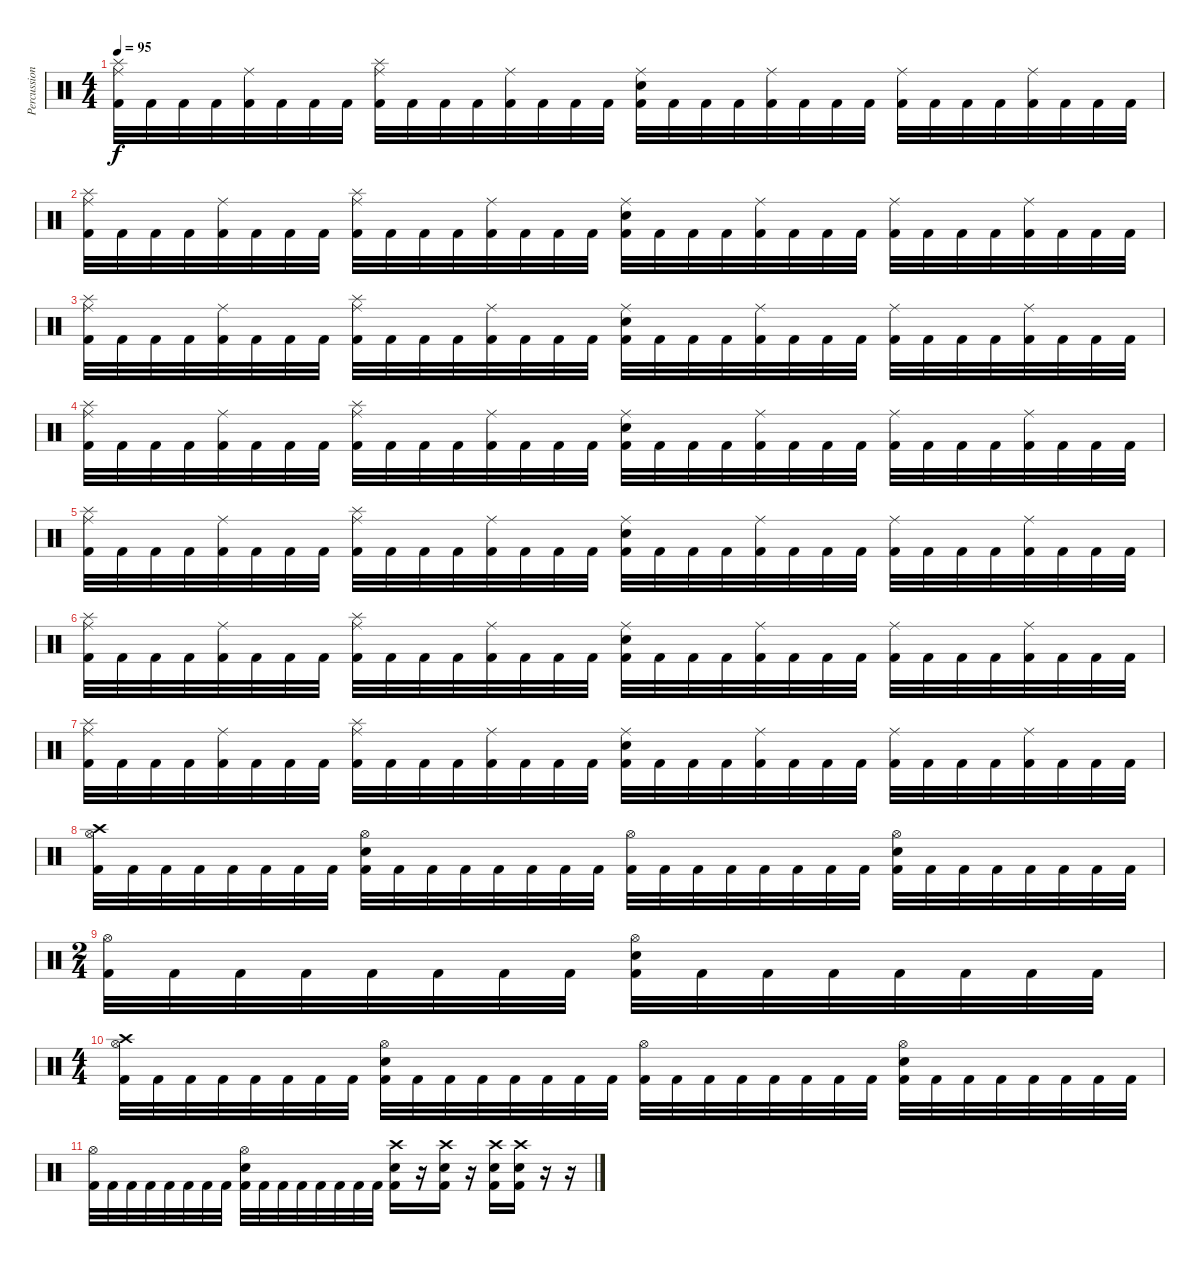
\track ("Percussions" "Percussion") {instrument percussion}
\staff {score}
\articulation defaults
\ts (4 4)
\tempo 95
\clef neutral
\ks c
("Ride (middle)" "Splash (hit)" "Kick (hit) 2").32{dy f} "Kick (hit) 2".32 "Kick (hit) 2".32 "Kick (hit) 2".32 ("Ride (middle)" "Kick (hit) 2").32 "Kick (hit) 2".32 "Kick (hit) 2".32 "Kick (hit) 2".32 ("Ride (middle)" "Splash (hit)" "Kick (hit) 2").32 "Kick (hit) 2".32 "Kick (hit) 2".32 "Kick (hit) 2".32 ("Ride (middle)" "Kick (hit) 2").32 "Kick (hit) 2".32 "Kick (hit) 2".32 "Kick (hit) 2".32 ("Ride (middle)" "Electric Snare (hit)" "Kick (hit) 2").32 "Kick (hit) 2".32 "Kick (hit) 2".32 "Kick (hit) 2".32 ("Ride (middle)" "Kick (hit) 2").32 "Kick (hit) 2".32 "Kick (hit) 2".32 "Kick (hit) 2".32 ("Ride (middle)" "Kick (hit) 2").32 "Kick (hit) 2".32 "Kick (hit) 2".32 "Kick (hit) 2".32 ("Ride (middle)" "Kick (hit) 2").32 "Kick (hit) 2".32 "Kick (hit) 2".32 "Kick (hit) 2".32 |
("Ride (middle)" "Splash (hit)" "Kick (hit) 2").32 "Kick (hit) 2".32 "Kick (hit) 2".32 "Kick (hit) 2".32 ("Ride (middle)" "Kick (hit) 2").32 "Kick (hit) 2".32 "Kick (hit) 2".32 "Kick (hit) 2".32 ("Ride (middle)" "Splash (hit)" "Kick (hit) 2").32 "Kick (hit) 2".32 "Kick (hit) 2".32 "Kick (hit) 2".32 ("Ride (middle)" "Kick (hit) 2").32 "Kick (hit) 2".32 "Kick (hit) 2".32 "Kick (hit) 2".32 ("Ride (middle)" "Electric Snare (hit)" "Kick (hit) 2").32 "Kick (hit) 2".32 "Kick (hit) 2".32 "Kick (hit) 2".32 ("Ride (middle)" "Kick (hit) 2").32 "Kick (hit) 2".32 "Kick (hit) 2".32 "Kick (hit) 2".32 ("Ride (middle)" "Kick (hit) 2").32 "Kick (hit) 2".32 "Kick (hit) 2".32 "Kick (hit) 2".32 ("Ride (middle)" "Kick (hit) 2").32 "Kick (hit) 2".32 "Kick (hit) 2".32 "Kick (hit) 2".32 |
("Ride (middle)" "Splash (hit)" "Kick (hit) 2").32 "Kick (hit) 2".32 "Kick (hit) 2".32 "Kick (hit) 2".32 ("Ride (middle)" "Kick (hit) 2").32 "Kick (hit) 2".32 "Kick (hit) 2".32 "Kick (hit) 2".32 ("Ride (middle)" "Splash (hit)" "Kick (hit) 2").32 "Kick (hit) 2".32 "Kick (hit) 2".32 "Kick (hit) 2".32 ("Ride (middle)" "Kick (hit) 2").32 "Kick (hit) 2".32 "Kick (hit) 2".32 "Kick (hit) 2".32 ("Ride (middle)" "Electric Snare (hit)" "Kick (hit) 2").32 "Kick (hit) 2".32 "Kick (hit) 2".32 "Kick (hit) 2".32 ("Ride (middle)" "Kick (hit) 2").32 "Kick (hit) 2".32 "Kick (hit) 2".32 "Kick (hit) 2".32 ("Ride (middle)" "Kick (hit) 2").32 "Kick (hit) 2".32 "Kick (hit) 2".32 "Kick (hit) 2".32 ("Ride (middle)" "Kick (hit) 2").32 "Kick (hit) 2".32 "Kick (hit) 2".32 "Kick (hit) 2".32 |
("Ride (middle)" "Splash (hit)" "Kick (hit) 2").32 "Kick (hit) 2".32 "Kick (hit) 2".32 "Kick (hit) 2".32 ("Ride (middle)" "Kick (hit) 2").32 "Kick (hit) 2".32 "Kick (hit) 2".32 "Kick (hit) 2".32 ("Ride (middle)" "Splash (hit)" "Kick (hit) 2").32 "Kick (hit) 2".32 "Kick (hit) 2".32 "Kick (hit) 2".32 ("Ride (middle)" "Kick (hit) 2").32 "Kick (hit) 2".32 "Kick (hit) 2".32 "Kick (hit) 2".32 ("Ride (middle)" "Electric Snare (hit)" "Kick (hit) 2").32 "Kick (hit) 2".32 "Kick (hit) 2".32 "Kick (hit) 2".32 ("Ride (middle)" "Kick (hit) 2").32 "Kick (hit) 2".32 "Kick (hit) 2".32 "Kick (hit) 2".32 ("Ride (middle)" "Kick (hit) 2").32 "Kick (hit) 2".32 "Kick (hit) 2".32 "Kick (hit) 2".32 ("Ride (middle)" "Kick (hit) 2").32 "Kick (hit) 2".32 "Kick (hit) 2".32 "Kick (hit) 2".32 |
("Ride (middle)" "Splash (hit)" "Kick (hit) 2").32 "Kick (hit) 2".32 "Kick (hit) 2".32 "Kick (hit) 2".32 ("Ride (middle)" "Kick (hit) 2").32 "Kick (hit) 2".32 "Kick (hit) 2".32 "Kick (hit) 2".32 ("Ride (middle)" "Splash (hit)" "Kick (hit) 2").32 "Kick (hit) 2".32 "Kick (hit) 2".32 "Kick (hit) 2".32 ("Ride (middle)" "Kick (hit) 2").32 "Kick (hit) 2".32 "Kick (hit) 2".32 "Kick (hit) 2".32 ("Ride (middle)" "Electric Snare (hit)" "Kick (hit) 2").32 "Kick (hit) 2".32 "Kick (hit) 2".32 "Kick (hit) 2".32 ("Ride (middle)" "Kick (hit) 2").32 "Kick (hit) 2".32 "Kick (hit) 2".32 "Kick (hit) 2".32 ("Ride (middle)" "Kick (hit) 2").32 "Kick (hit) 2".32 "Kick (hit) 2".32 "Kick (hit) 2".32 ("Ride (middle)" "Kick (hit) 2").32 "Kick (hit) 2".32 "Kick (hit) 2".32 "Kick (hit) 2".32 |
("Ride (middle)" "Splash (hit)" "Kick (hit) 2").32 "Kick (hit) 2".32 "Kick (hit) 2".32 "Kick (hit) 2".32 ("Ride (middle)" "Kick (hit) 2").32 "Kick (hit) 2".32 "Kick (hit) 2".32 "Kick (hit) 2".32 ("Ride (middle)" "Splash (hit)" "Kick (hit) 2").32 "Kick (hit) 2".32 "Kick (hit) 2".32 "Kick (hit) 2".32 ("Ride (middle)" "Kick (hit) 2").32 "Kick (hit) 2".32 "Kick (hit) 2".32 "Kick (hit) 2".32 ("Ride (middle)" "Electric Snare (hit)" "Kick (hit) 2").32 "Kick (hit) 2".32 "Kick (hit) 2".32 "Kick (hit) 2".32 ("Ride (middle)" "Kick (hit) 2").32 "Kick (hit) 2".32 "Kick (hit) 2".32 "Kick (hit) 2".32 ("Ride (middle)" "Kick (hit) 2").32 "Kick (hit) 2".32 "Kick (hit) 2".32 "Kick (hit) 2".32 ("Ride (middle)" "Kick (hit) 2").32 "Kick (hit) 2".32 "Kick (hit) 2".32 "Kick (hit) 2".32 |
("Ride (middle)" "Splash (hit)" "Kick (hit) 2").32 "Kick (hit) 2".32 "Kick (hit) 2".32 "Kick (hit) 2".32 ("Ride (middle)" "Kick (hit) 2").32 "Kick (hit) 2".32 "Kick (hit) 2".32 "Kick (hit) 2".32 ("Ride (middle)" "Splash (hit)" "Kick (hit) 2").32 "Kick (hit) 2".32 "Kick (hit) 2".32 "Kick (hit) 2".32 ("Ride (middle)" "Kick (hit) 2").32 "Kick (hit) 2".32 "Kick (hit) 2".32 "Kick (hit) 2".32 ("Ride (middle)" "Electric Snare (hit)" "Kick (hit) 2").32 "Kick (hit) 2".32 "Kick (hit) 2".32 "Kick (hit) 2".32 ("Ride (middle)" "Kick (hit) 2").32 "Kick (hit) 2".32 "Kick (hit) 2".32 "Kick (hit) 2".32 ("Ride (middle)" "Kick (hit) 2").32 "Kick (hit) 2".32 "Kick (hit) 2".32 "Kick (hit) 2".32 ("Ride (middle)" "Kick (hit) 2").32 "Kick (hit) 2".32 "Kick (hit) 2".32 "Kick (hit) 2".32 |
("Crash high (hit)" "Hi-Hat (open)" "Kick (hit) 2").32 "Kick (hit) 2".32 "Kick (hit) 2".32 "Kick (hit) 2".32 "Kick (hit) 2".32 "Kick (hit) 2".32 "Kick (hit) 2".32 "Kick (hit) 2".32 ("Hi-Hat (open)" "Electric Snare (hit)" "Kick (hit) 2").32 "Kick (hit) 2".32 "Kick (hit) 2".32 "Kick (hit) 2".32 "Kick (hit) 2".32 "Kick (hit) 2".32 "Kick (hit) 2".32 "Kick (hit) 2".32 ("Hi-Hat (open)" "Kick (hit) 2").32 "Kick (hit) 2".32 "Kick (hit) 2".32 "Kick (hit) 2".32 "Kick (hit) 2".32 "Kick (hit) 2".32 "Kick (hit) 2".32 "Kick (hit) 2".32 ("Hi-Hat (open)" "Electric Snare (hit)" "Kick (hit) 2").32 "Kick (hit) 2".32 "Kick (hit) 2".32 "Kick (hit) 2".32 "Kick (hit) 2".32 "Kick (hit) 2".32 "Kick (hit) 2".32 "Kick (hit) 2".32 |
\ts (2 4)
("Hi-Hat (open)" "Kick (hit) 2").32 "Kick (hit) 2".32 "Kick (hit) 2".32 "Kick (hit) 2".32 "Kick (hit) 2".32 "Kick (hit) 2".32 "Kick (hit) 2".32 "Kick (hit) 2".32 ("Hi-Hat (open)" "Electric Snare (hit)" "Kick (hit) 2").32 "Kick (hit) 2".32 "Kick (hit) 2".32 "Kick (hit) 2".32 "Kick (hit) 2".32 "Kick (hit) 2".32 "Kick (hit) 2".32 "Kick (hit) 2".32 |
\ts (4 4)
("Crash high (hit)" "Hi-Hat (open)" "Kick (hit) 2").32 "Kick (hit) 2".32 "Kick (hit) 2".32 "Kick (hit) 2".32 "Kick (hit) 2".32 "Kick (hit) 2".32 "Kick (hit) 2".32 "Kick (hit) 2".32 ("Hi-Hat (open)" "Electric Snare (hit)" "Kick (hit) 2").32 "Kick (hit) 2".32 "Kick (hit) 2".32 "Kick (hit) 2".32 "Kick (hit) 2".32 "Kick (hit) 2".32 "Kick (hit) 2".32 "Kick (hit) 2".32 ("Hi-Hat (open)" "Kick (hit) 2").32 "Kick (hit) 2".32 "Kick (hit) 2".32 "Kick (hit) 2".32 "Kick (hit) 2".32 "Kick (hit) 2".32 "Kick (hit) 2".32 "Kick (hit) 2".32 ("Hi-Hat (open)" "Electric Snare (hit)" "Kick (hit) 2").32 "Kick (hit) 2".32 "Kick (hit) 2".32 "Kick (hit) 2".32 "Kick (hit) 2".32 "Kick (hit) 2".32 "Kick (hit) 2".32 "Kick (hit) 2".32 |
("Hi-Hat (open)" "Kick (hit) 2").32 "Kick (hit) 2".32 "Kick (hit) 2".32 "Kick (hit) 2".32 "Kick (hit) 2".32 "Kick (hit) 2".32 "Kick (hit) 2".32 "Kick (hit) 2".32 ("Hi-Hat (open)" "Electric Snare (hit)" "Kick (hit) 2").32 "Kick (hit) 2".32 "Kick (hit) 2".32 "Kick (hit) 2".32 "Kick (hit) 2".32 "Kick (hit) 2".32 "Kick (hit) 2".32 "Kick (hit) 2".32 ("Crash high (hit)" "Electric Snare (hit)" "Kick (hit) 2").16 r.16 ("Crash high (hit)" "Electric Snare (hit)" "Kick (hit) 2").16 r.16 ("Crash high (hit)" "Electric Snare (hit)" "Kick (hit) 2").16 ("Crash high (hit)" "Electric Snare (hit)" "Kick (hit) 2").16 r.16 r.16
